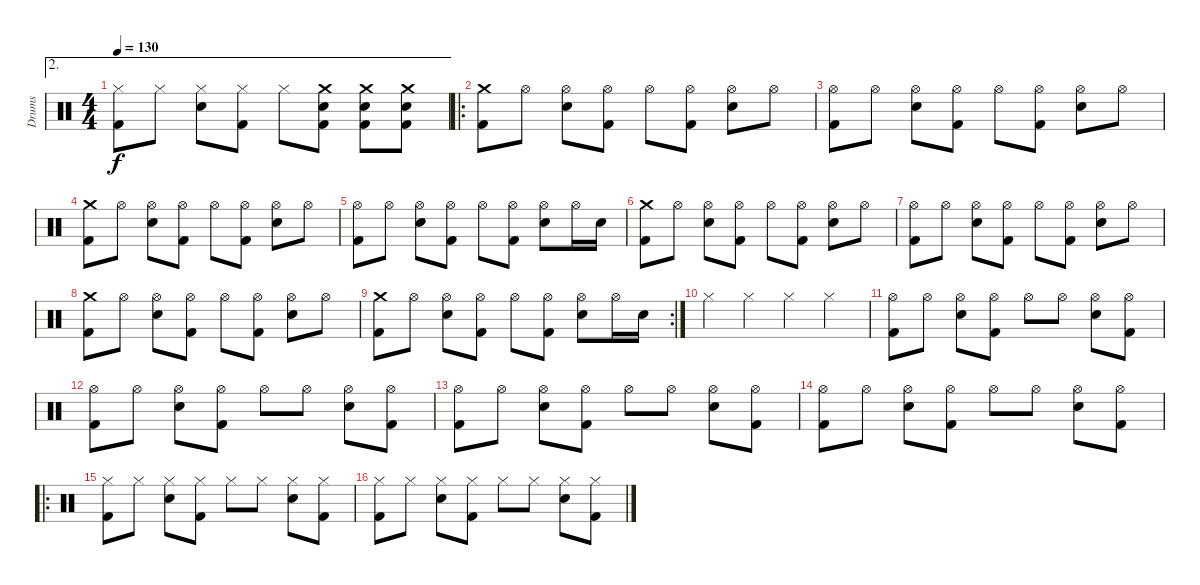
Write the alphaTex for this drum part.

\track ("Drums" "Drums") {instrument percussion}
\staff {score}
\articulation defaults
\ae 2
\ts (4 4)
\tempo 130
\clef neutral
\ks c
("Hi-Hat (closed)" "Kick (hit) 2").8{dy f} "Hi-Hat (closed)".8 ("Hi-Hat (closed)" "Electric Snare (hit)").8 ("Hi-Hat (closed)" "Kick (hit) 2").8 "Hi-Hat (closed)".8 ("Crash medium (hit)" "Electric Snare (hit)" "Kick (hit) 2").8 ("Crash medium (hit)" "Electric Snare (hit)" "Kick (hit) 2").8 ("Crash medium (hit)" "Electric Snare (hit)" "Kick (hit) 2").8 |
\ro
("Crash medium (hit)" "Kick (hit) 2").8 "Hi-Hat (open)".8 ("Hi-Hat (open)" "Electric Snare (hit)").8 ("Hi-Hat (open)" "Kick (hit) 2").8 "Hi-Hat (open)".8 ("Hi-Hat (open)" "Kick (hit) 2").8 ("Hi-Hat (open)" "Electric Snare (hit)").8 "Hi-Hat (open)".8 |
("Hi-Hat (open)" "Kick (hit) 2").8 "Hi-Hat (open)".8 ("Hi-Hat (open)" "Electric Snare (hit)").8 ("Hi-Hat (open)" "Kick (hit) 2").8 "Hi-Hat (open)".8 ("Hi-Hat (open)" "Kick (hit) 2").8 ("Hi-Hat (open)" "Electric Snare (hit)").8 "Hi-Hat (open)".8 |
("Crash medium (hit)" "Kick (hit) 2").8 "Hi-Hat (open)".8 ("Hi-Hat (open)" "Electric Snare (hit)").8 ("Hi-Hat (open)" "Kick (hit) 2").8 "Hi-Hat (open)".8 ("Hi-Hat (open)" "Kick (hit) 2").8 ("Hi-Hat (open)" "Electric Snare (hit)").8 "Hi-Hat (open)".8 |
("Hi-Hat (open)" "Kick (hit) 2").8 "Hi-Hat (open)".8 ("Hi-Hat (open)" "Electric Snare (hit)").8 ("Hi-Hat (open)" "Kick (hit) 2").8 "Hi-Hat (open)".8 ("Hi-Hat (open)" "Kick (hit) 2").8 ("Hi-Hat (open)" "Electric Snare (hit)").8 "Hi-Hat (open)".16 "Electric Snare (hit)".16 |
("Crash medium (hit)" "Kick (hit) 2").8 "Hi-Hat (open)".8 ("Hi-Hat (open)" "Electric Snare (hit)").8 ("Hi-Hat (open)" "Kick (hit) 2").8 "Hi-Hat (open)".8 ("Hi-Hat (open)" "Kick (hit) 2").8 ("Hi-Hat (open)" "Electric Snare (hit)").8 "Hi-Hat (open)".8 |
("Hi-Hat (open)" "Kick (hit) 2").8 "Hi-Hat (open)".8 ("Hi-Hat (open)" "Electric Snare (hit)").8 ("Hi-Hat (open)" "Kick (hit) 2").8 "Hi-Hat (open)".8 ("Hi-Hat (open)" "Kick (hit) 2").8 ("Hi-Hat (open)" "Electric Snare (hit)").8 "Hi-Hat (open)".8 |
("Crash medium (hit)" "Kick (hit) 2").8 "Hi-Hat (open)".8 ("Hi-Hat (open)" "Electric Snare (hit)").8 ("Hi-Hat (open)" "Kick (hit) 2").8 "Hi-Hat (open)".8 ("Hi-Hat (open)" "Kick (hit) 2").8 ("Hi-Hat (open)" "Electric Snare (hit)").8 "Hi-Hat (open)".8 |
\rc 2
("Crash medium (hit)" "Kick (hit) 2").8 "Hi-Hat (open)".8 ("Hi-Hat (open)" "Electric Snare (hit)").8 ("Hi-Hat (open)" "Kick (hit) 2").8 "Hi-Hat (open)".8 ("Hi-Hat (open)" "Kick (hit) 2").8 ("Hi-Hat (open)" "Electric Snare (hit)").8 "Hi-Hat (open)".16 "Electric Snare (hit)".16 |
"Hi-Hat (closed)".4 "Hi-Hat (closed)".4 "Hi-Hat (closed)".4 "Hi-Hat (closed)".4 |
("Hi-Hat (open)" "Kick (hit) 2").8 "Hi-Hat (open)".8 ("Hi-Hat (open)" "Electric Snare (hit)").8 ("Hi-Hat (open)" "Kick (hit) 2").8 "Hi-Hat (open)".8 "Hi-Hat (open)".8 ("Hi-Hat (open)" "Electric Snare (hit)").8 ("Hi-Hat (open)" "Kick (hit) 2").8 |
("Hi-Hat (open)" "Kick (hit) 2").8 "Hi-Hat (open)".8 ("Hi-Hat (open)" "Electric Snare (hit)").8 ("Hi-Hat (open)" "Kick (hit) 2").8 "Hi-Hat (open)".8 "Hi-Hat (open)".8 ("Hi-Hat (open)" "Electric Snare (hit)").8 ("Hi-Hat (open)" "Kick (hit) 2").8 |
("Hi-Hat (open)" "Kick (hit) 2").8 "Hi-Hat (open)".8 ("Hi-Hat (open)" "Electric Snare (hit)").8 ("Hi-Hat (open)" "Kick (hit) 2").8 "Hi-Hat (open)".8 "Hi-Hat (open)".8 ("Hi-Hat (open)" "Electric Snare (hit)").8 ("Hi-Hat (open)" "Kick (hit) 2").8 |
("Hi-Hat (open)" "Kick (hit) 2").8 "Hi-Hat (open)".8 ("Hi-Hat (open)" "Electric Snare (hit)").8 ("Hi-Hat (open)" "Kick (hit) 2").8 "Hi-Hat (open)".8 "Hi-Hat (open)".8 ("Hi-Hat (open)" "Electric Snare (hit)").8 ("Hi-Hat (open)" "Kick (hit) 2").8 |
\ro
("Hi-Hat (closed)" "Kick (hit) 2").8 "Hi-Hat (closed)".8 ("Hi-Hat (closed)" "Electric Snare (hit)").8 ("Hi-Hat (closed)" "Kick (hit) 2").8 "Hi-Hat (closed)".8 "Hi-Hat (closed)".8 ("Hi-Hat (closed)" "Electric Snare (hit)").8 ("Hi-Hat (closed)" "Kick (hit) 2").8 |
("Hi-Hat (closed)" "Kick (hit) 2").8 "Hi-Hat (closed)".8 ("Hi-Hat (closed)" "Electric Snare (hit)").8 ("Hi-Hat (closed)" "Kick (hit) 2").8 "Hi-Hat (closed)".8 "Hi-Hat (closed)".8 ("Hi-Hat (closed)" "Electric Snare (hit)").8 ("Hi-Hat (closed)" "Kick (hit) 2").8
